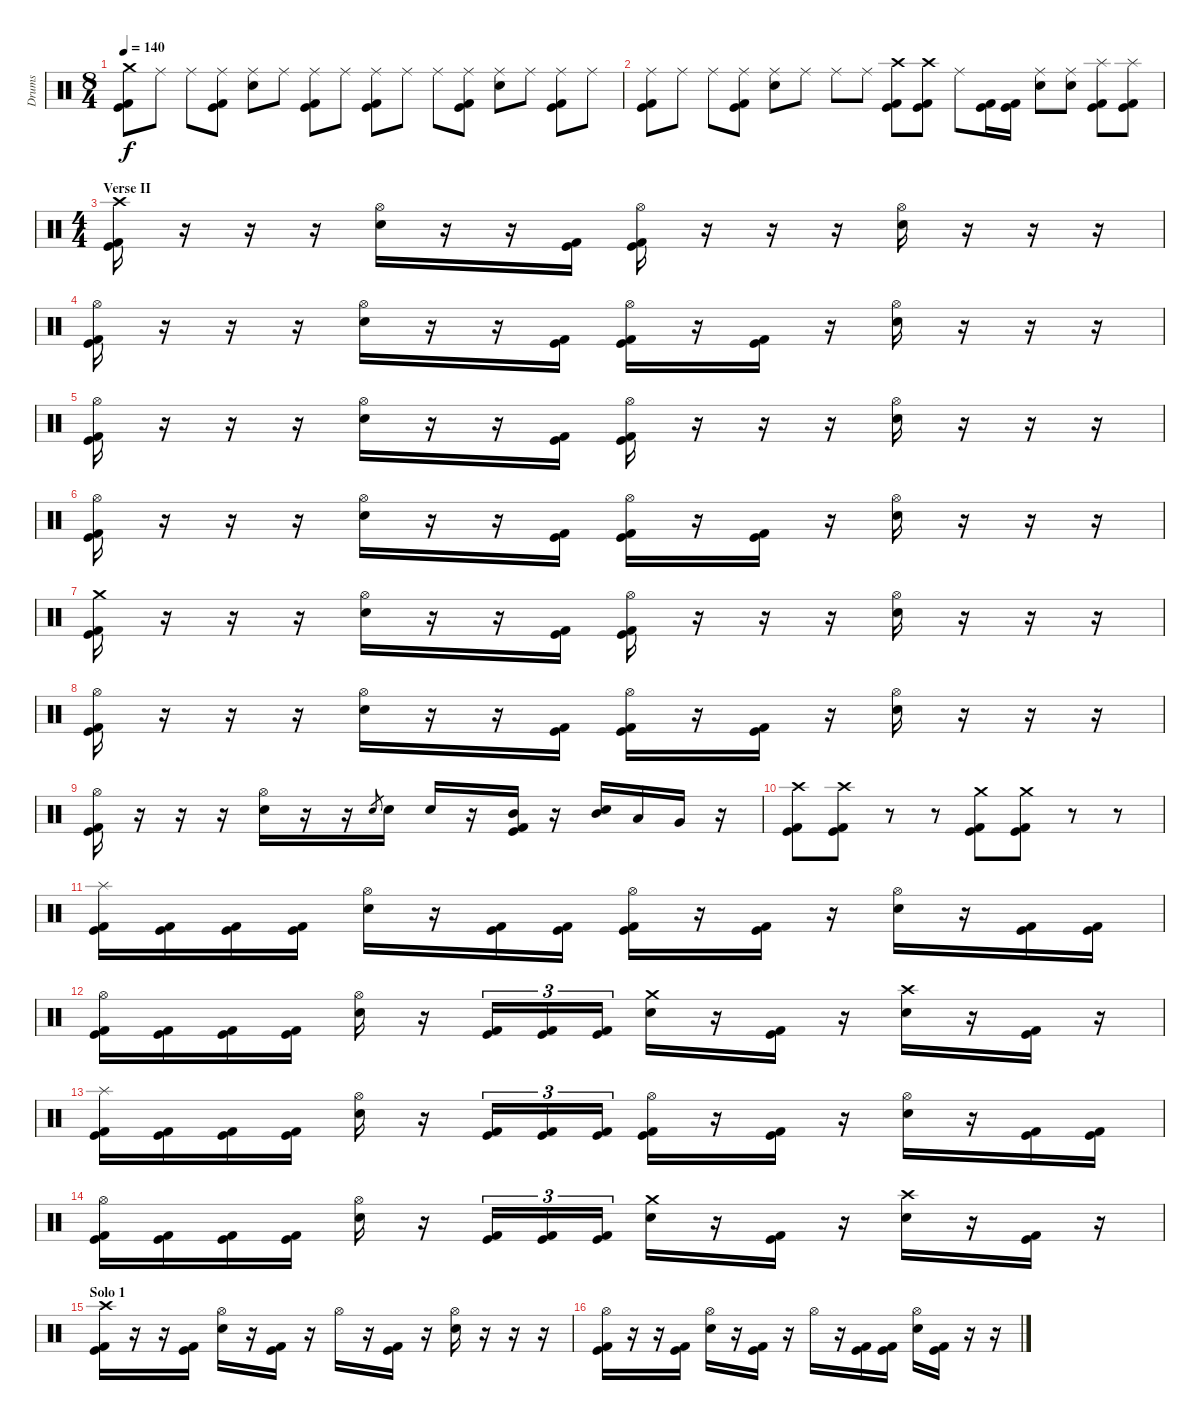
\track ("Drums" "Drums") {instrument percussion}
\staff {score}
\articulation defaults
\ts (8 4)
\tempo 140
\clef neutral
\ks c
("Crash medium (hit)" "Kick (hit)" "Kick (hit) 2").8{dy f} "Ride (middle)".8 "Ride (middle)".8 ("Ride (middle)" "Kick (hit)" "Kick (hit) 2").8 ("Ride (middle)" "Electric Snare (hit)").8 "Ride (middle)".8 ("Ride (middle)" "Kick (hit)" "Kick (hit) 2").8 "Ride (middle)".8 ("Ride (middle)" "Kick (hit)" "Kick (hit) 2").8 "Ride (middle)".8 "Ride (middle)".8 ("Ride (middle)" "Kick (hit)" "Kick (hit) 2").8 ("Ride (middle)" "Electric Snare (hit)").8 "Ride (middle)".8 ("Ride (middle)" "Kick (hit)" "Kick (hit) 2").8 "Ride (middle)".8 |
("Ride (middle)" "Kick (hit)" "Kick (hit) 2").8 "Ride (middle)".8 "Ride (middle)".8 ("Ride (middle)" "Kick (hit)" "Kick (hit) 2").8 ("Ride (middle)" "Electric Snare (hit)").8 "Ride (middle)".8 "Ride (middle)".8 "Ride (middle)".8 ("Crash high (hit)" "Kick (hit)" "Kick (hit) 2").8 ("Crash high (hit)" "Kick (hit)" "Kick (hit) 2").8 "Ride (middle)".8 ("Kick (hit)" "Kick (hit) 2").16 ("Kick (hit)" "Kick (hit) 2").16 ("Ride (middle)" "Electric Snare (hit)").8 ("Ride (middle)" "Electric Snare (hit)").8 ("Splash (hit)" "Kick (hit)" "Kick (hit) 2").8 ("Splash (hit)" "Kick (hit)" "Kick (hit) 2").8 |
\ts (4 4)
\section ("" "Verse II")
("Crash high (hit)" "Kick (hit)" "Kick (hit) 2").16 r.16 r.16 r.16 ("Hi-Hat (open)" "Electric Snare (hit)").16 r.16 r.16 ("Kick (hit)" "Kick (hit) 2").16 ("Hi-Hat (open)" "Kick (hit)" "Kick (hit) 2").16 r.16 r.16 r.16 ("Hi-Hat (open)" "Electric Snare (hit)").16 r.16 r.16 r.16 |
("Hi-Hat (open)" "Kick (hit)" "Kick (hit) 2").16 r.16 r.16 r.16 ("Hi-Hat (open)" "Electric Snare (hit)").16 r.16 r.16 ("Kick (hit)" "Kick (hit) 2").16 ("Hi-Hat (open)" "Kick (hit)" "Kick (hit) 2").16 r.16 ("Kick (hit)" "Kick (hit) 2").16 r.16 ("Hi-Hat (open)" "Electric Snare (hit)").16 r.16 r.16 r.16 |
("Hi-Hat (open)" "Kick (hit)" "Kick (hit) 2").16 r.16 r.16 r.16 ("Hi-Hat (open)" "Electric Snare (hit)").16 r.16 r.16 ("Kick (hit)" "Kick (hit) 2").16 ("Hi-Hat (open)" "Kick (hit)" "Kick (hit) 2").16 r.16 r.16 r.16 ("Hi-Hat (open)" "Electric Snare (hit)").16 r.16 r.16 r.16 |
("Hi-Hat (open)" "Kick (hit)" "Kick (hit) 2").16 r.16 r.16 r.16 ("Hi-Hat (open)" "Electric Snare (hit)").16 r.16 r.16 ("Kick (hit)" "Kick (hit) 2").16 ("Hi-Hat (open)" "Kick (hit)" "Kick (hit) 2").16 r.16 ("Kick (hit)" "Kick (hit) 2").16 r.16 ("Hi-Hat (open)" "Electric Snare (hit)").16 r.16 r.16 r.16 |
("Crash medium (hit)" "Kick (hit)" "Kick (hit) 2").16 r.16 r.16 r.16 ("Hi-Hat (open)" "Electric Snare (hit)").16 r.16 r.16 ("Kick (hit)" "Kick (hit) 2").16 ("Hi-Hat (open)" "Kick (hit)" "Kick (hit) 2").16 r.16 r.16 r.16 ("Hi-Hat (open)" "Electric Snare (hit)").16 r.16 r.16 r.16 |
("Hi-Hat (open)" "Kick (hit)" "Kick (hit) 2").16 r.16 r.16 r.16 ("Hi-Hat (open)" "Electric Snare (hit)").16 r.16 r.16 ("Kick (hit)" "Kick (hit) 2").16 ("Hi-Hat (open)" "Kick (hit)" "Kick (hit) 2").16 r.16 ("Kick (hit)" "Kick (hit) 2").16 r.16 ("Hi-Hat (open)" "Electric Snare (hit)").16 r.16 r.16 r.16 |
("Hi-Hat (open)" "Kick (hit)" "Kick (hit) 2").16 r.16 r.16 r.16 ("Hi-Hat (open)" "Electric Snare (hit)").16 r.16 r.16 "Electric Snare (hit)".8{gr} "Electric Snare (hit)".16 "Electric Snare (hit)".16 r.16 ("Mid Tom (hit)" "Kick (hit)" "Kick (hit) 2").16 r.16 ("Mid Tom (hit)" "Electric Snare (hit)").16 "Low Tom (hit)".16 "Very Low Tom (hit)".16 r.16 |
("Crash high (hit)" "Kick (hit)" "Kick (hit) 2").8 ("Crash high (hit)" "Kick (hit)" "Kick (hit) 2").8 r.8 r.8 ("Crash medium (hit)" "Kick (hit)" "Kick (hit) 2").8 ("Crash medium (hit)" "Kick (hit)" "Kick (hit) 2").8 r.8 r.8 |
("Splash (hit)" "Kick (hit)" "Kick (hit) 2").16 ("Kick (hit)" "Kick (hit) 2").16 ("Kick (hit)" "Kick (hit) 2").16 ("Kick (hit)" "Kick (hit) 2").16 ("Hi-Hat (open)" "Electric Snare (hit)").16 r.16 ("Kick (hit)" "Kick (hit) 2").16 ("Kick (hit)" "Kick (hit) 2").16 ("Hi-Hat (open)" "Kick (hit)" "Kick (hit) 2").16 r.16 ("Kick (hit)" "Kick (hit) 2").16 r.16 ("Hi-Hat (open)" "Electric Snare (hit)").16 r.16 ("Kick (hit)" "Kick (hit) 2").16 ("Kick (hit)" "Kick (hit) 2").16 |
("Hi-Hat (open)" "Kick (hit)" "Kick (hit) 2").16 ("Kick (hit)" "Kick (hit) 2").16 ("Kick (hit)" "Kick (hit) 2").16 ("Kick (hit)" "Kick (hit) 2").16 ("Hi-Hat (open)" "Electric Snare (hit)").16 r.16 ("Kick (hit)" "Kick (hit) 2").16{tu (3 2)} ("Kick (hit)" "Kick (hit) 2").16{tu (3 2)} ("Kick (hit)" "Kick (hit) 2").16{tu (3 2)} ("Crash medium (hit)" "Electric Snare (hit)").16 r.16 ("Kick (hit)" "Kick (hit) 2").16 r.16 ("Crash high (hit)" "Electric Snare (hit)").16 r.16 ("Kick (hit)" "Kick (hit) 2").16 r.16 |
("Splash (hit)" "Kick (hit)" "Kick (hit) 2").16 ("Kick (hit)" "Kick (hit) 2").16 ("Kick (hit)" "Kick (hit) 2").16 ("Kick (hit)" "Kick (hit) 2").16 ("Hi-Hat (open)" "Electric Snare (hit)").16 r.16 ("Kick (hit)" "Kick (hit) 2").16{tu (3 2)} ("Kick (hit)" "Kick (hit) 2").16{tu (3 2)} ("Kick (hit)" "Kick (hit) 2").16{tu (3 2)} ("Hi-Hat (open)" "Kick (hit)" "Kick (hit) 2").16 r.16 ("Kick (hit)" "Kick (hit) 2").16 r.16 ("Hi-Hat (open)" "Electric Snare (hit)").16 r.16 ("Kick (hit)" "Kick (hit) 2").16 ("Kick (hit)" "Kick (hit) 2").16 |
("Hi-Hat (open)" "Kick (hit)" "Kick (hit) 2").16 ("Kick (hit)" "Kick (hit) 2").16 ("Kick (hit)" "Kick (hit) 2").16 ("Kick (hit)" "Kick (hit) 2").16 ("Hi-Hat (open)" "Electric Snare (hit)").16 r.16 ("Kick (hit)" "Kick (hit) 2").16{tu (3 2)} ("Kick (hit)" "Kick (hit) 2").16{tu (3 2)} ("Kick (hit)" "Kick (hit) 2").16{tu (3 2)} ("Crash medium (hit)" "Electric Snare (hit)").16 r.16 ("Kick (hit)" "Kick (hit) 2").16 r.16 ("Crash high (hit)" "Electric Snare (hit)").16 r.16 ("Kick (hit)" "Kick (hit) 2").16 r.16 |
\section ("" "Solo 1")
("Crash high (hit)" "Kick (hit)" "Kick (hit) 2").16 r.16 r.16 ("Kick (hit)" "Kick (hit) 2").16 ("Hi-Hat (open)" "Electric Snare (hit)").16 r.16 ("Kick (hit)" "Kick (hit) 2").16 r.16 "Hi-Hat (open)".16 r.16 ("Kick (hit)" "Kick (hit) 2").16 r.16 ("Hi-Hat (open)" "Electric Snare (hit)").16 r.16 r.16 r.16 |
("Hi-Hat (open)" "Kick (hit)" "Kick (hit) 2").16 r.16 r.16 ("Kick (hit)" "Kick (hit) 2").16 ("Hi-Hat (open)" "Electric Snare (hit)").16 r.16 ("Kick (hit)" "Kick (hit) 2").16 r.16 "Hi-Hat (open)".16 r.16 ("Kick (hit)" "Kick (hit) 2").16 ("Kick (hit)" "Kick (hit) 2").16 ("Hi-Hat (open)" "Electric Snare (hit)").16 ("Kick (hit)" "Kick (hit) 2").16 r.16 r.16
